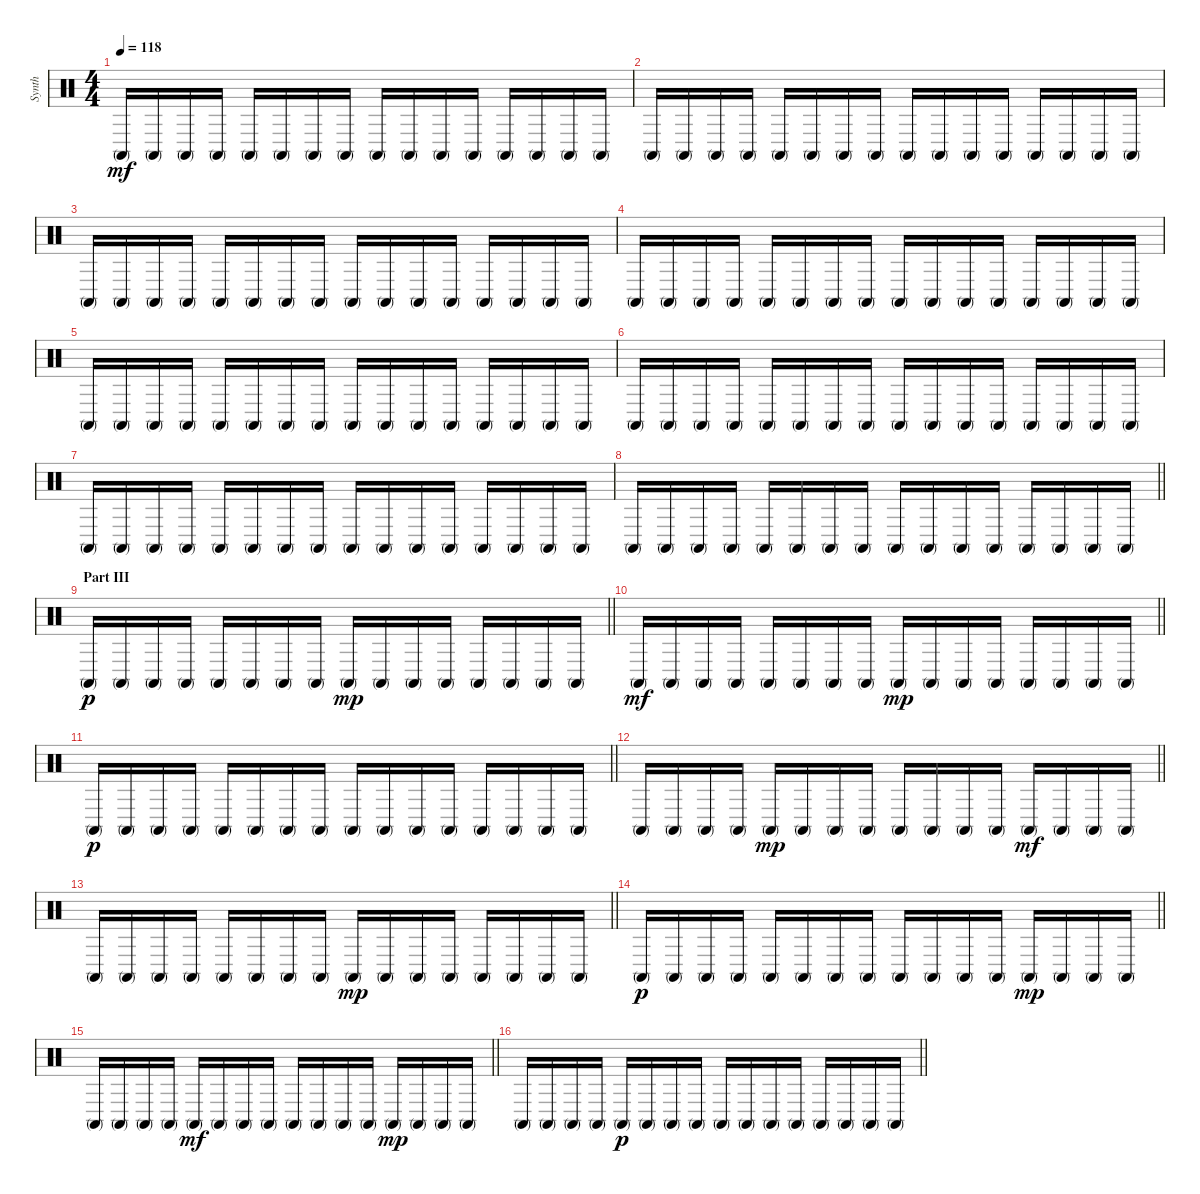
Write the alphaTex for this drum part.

\track ("Synth" "Synth") {instrument percussion}
\staff {score}
\articulation defaults
\ts (4 4)
\tempo 118
\clef neutral
\ks c "Conga high (mute)".16{dy mf} "Conga high (mute)".16 "Conga high (mute)".16 "Conga high (mute)".16 "Conga high (mute)".16 "Conga high (mute)".16 "Conga high (mute)".16 "Conga high (mute)".16 "Conga high (mute)".16 "Conga high (mute)".16 "Conga high (mute)".16 "Conga high (mute)".16 "Conga high (mute)".16 "Conga high (mute)".16 "Conga high (mute)".16 "Conga high (mute)".16
|
"Conga high (mute)".16 "Conga high (mute)".16 "Conga high (mute)".16 "Conga high (mute)".16 "Conga high (mute)".16 "Conga high (mute)".16 "Conga high (mute)".16 "Conga high (mute)".16 "Conga high (mute)".16 "Conga high (mute)".16 "Conga high (mute)".16 "Conga high (mute)".16 "Conga high (mute)".16 "Conga high (mute)".16 "Conga high (mute)".16 "Conga high (mute)".16 |
"Conga high (mute)".16 "Conga high (mute)".16 "Conga high (mute)".16 "Conga high (mute)".16 "Conga high (mute)".16 "Conga high (mute)".16 "Conga high (mute)".16 "Conga high (mute)".16 "Conga high (mute)".16 "Conga high (mute)".16 "Conga high (mute)".16 "Conga high (mute)".16 "Conga high (mute)".16 "Conga high (mute)".16 "Conga high (mute)".16 "Conga high (mute)".16 |
"Conga high (mute)".16 "Conga high (mute)".16 "Conga high (mute)".16 "Conga high (mute)".16 "Conga high (mute)".16 "Conga high (mute)".16 "Conga high (mute)".16 "Conga high (mute)".16 "Conga high (mute)".16 "Conga high (mute)".16 "Conga high (mute)".16 "Conga high (mute)".16 "Conga high (mute)".16 "Conga high (mute)".16 "Conga high (mute)".16 "Conga high (mute)".16 |
"Conga high (mute)".16 "Conga high (mute)".16 "Conga high (mute)".16 "Conga high (mute)".16 "Conga high (mute)".16 "Conga high (mute)".16 "Conga high (mute)".16 "Conga high (mute)".16 "Conga high (mute)".16 "Conga high (mute)".16 "Conga high (mute)".16 "Conga high (mute)".16 "Conga high (mute)".16 "Conga high (mute)".16 "Conga high (mute)".16 "Conga high (mute)".16 |
"Conga high (mute)".16 "Conga high (mute)".16 "Conga high (mute)".16 "Conga high (mute)".16 "Conga high (mute)".16 "Conga high (mute)".16 "Conga high (mute)".16 "Conga high (mute)".16 "Conga high (mute)".16 "Conga high (mute)".16 "Conga high (mute)".16 "Conga high (mute)".16 "Conga high (mute)".16 "Conga high (mute)".16 "Conga high (mute)".16 "Conga high (mute)".16 |
"Conga high (mute)".16 "Conga high (mute)".16 "Conga high (mute)".16 "Conga high (mute)".16 "Conga high (mute)".16 "Conga high (mute)".16 "Conga high (mute)".16 "Conga high (mute)".16 "Conga high (mute)".16 "Conga high (mute)".16 "Conga high (mute)".16 "Conga high (mute)".16 "Conga high (mute)".16 "Conga high (mute)".16 "Conga high (mute)".16 "Conga high (mute)".16 |
\barLineRight lightlight "Conga high (mute)".16 "Conga high (mute)".16 "Conga high (mute)".16 "Conga high (mute)".16 "Conga high (mute)".16 "Conga high (mute)".16 "Conga high (mute)".16 "Conga high (mute)".16 "Conga high (mute)".16 "Conga high (mute)".16 "Conga high (mute)".16 "Conga high (mute)".16 "Conga high (mute)".16 "Conga high (mute)".16 "Conga high (mute)".16 "Conga high (mute)".16
|
\section ("" "Part III")
\barLineRight lightlight "Conga high (mute)".16{dy p} "Conga high (mute)".16 "Conga high (mute)".16 "Conga high (mute)".16 "Conga high (mute)".16 "Conga high (mute)".16 "Conga high (mute)".16 "Conga high (mute)".16 "Conga high (mute)".16{dy mp} "Conga high (mute)".16 "Conga high (mute)".16 "Conga high (mute)".16 "Conga high (mute)".16 "Conga high (mute)".16 "Conga high (mute)".16 "Conga high (mute)".16
|
\barLineRight lightlight "Conga high (mute)".16{dy mf} "Conga high (mute)".16 "Conga high (mute)".16 "Conga high (mute)".16 "Conga high (mute)".16 "Conga high (mute)".16 "Conga high (mute)".16 "Conga high (mute)".16 "Conga high (mute)".16{dy mp} "Conga high (mute)".16 "Conga high (mute)".16 "Conga high (mute)".16 "Conga high (mute)".16 "Conga high (mute)".16 "Conga high (mute)".16 "Conga high (mute)".16
|
\barLineRight lightlight "Conga high (mute)".16{dy p} "Conga high (mute)".16 "Conga high (mute)".16 "Conga high (mute)".16 "Conga high (mute)".16 "Conga high (mute)".16 "Conga high (mute)".16 "Conga high (mute)".16 "Conga high (mute)".16 "Conga high (mute)".16 "Conga high (mute)".16 "Conga high (mute)".16 "Conga high (mute)".16 "Conga high (mute)".16 "Conga high (mute)".16 "Conga high (mute)".16
|
\barLineRight lightlight "Conga high (mute)".16 "Conga high (mute)".16 "Conga high (mute)".16 "Conga high (mute)".16 "Conga high (mute)".16{dy mp} "Conga high (mute)".16 "Conga high (mute)".16 "Conga high (mute)".16 "Conga high (mute)".16 "Conga high (mute)".16 "Conga high (mute)".16 "Conga high (mute)".16 "Conga high (mute)".16{dy mf} "Conga high (mute)".16 "Conga high (mute)".16 "Conga high (mute)".16
|
\barLineRight lightlight "Conga high (mute)".16 "Conga high (mute)".16 "Conga high (mute)".16 "Conga high (mute)".16 "Conga high (mute)".16 "Conga high (mute)".16 "Conga high (mute)".16 "Conga high (mute)".16 "Conga high (mute)".16{dy mp} "Conga high (mute)".16 "Conga high (mute)".16 "Conga high (mute)".16 "Conga high (mute)".16 "Conga high (mute)".16 "Conga high (mute)".16 "Conga high (mute)".16
|
\barLineRight lightlight "Conga high (mute)".16{dy p} "Conga high (mute)".16 "Conga high (mute)".16 "Conga high (mute)".16 "Conga high (mute)".16 "Conga high (mute)".16 "Conga high (mute)".16 "Conga high (mute)".16 "Conga high (mute)".16 "Conga high (mute)".16 "Conga high (mute)".16 "Conga high (mute)".16 "Conga high (mute)".16{dy mp} "Conga high (mute)".16 "Conga high (mute)".16 "Conga high (mute)".16
|
\barLineRight lightlight "Conga high (mute)".16 "Conga high (mute)".16 "Conga high (mute)".16 "Conga high (mute)".16 "Conga high (mute)".16{dy mf} "Conga high (mute)".16 "Conga high (mute)".16 "Conga high (mute)".16 "Conga high (mute)".16 "Conga high (mute)".16 "Conga high (mute)".16 "Conga high (mute)".16 "Conga high (mute)".16{dy mp} "Conga high (mute)".16 "Conga high (mute)".16 "Conga high (mute)".16
|
\barLineRight lightlight "Conga high (mute)".16 "Conga high (mute)".16 "Conga high (mute)".16 "Conga high (mute)".16 "Conga high (mute)".16{dy p} "Conga high (mute)".16 "Conga high (mute)".16 "Conga high (mute)".16 "Conga high (mute)".16 "Conga high (mute)".16 "Conga high (mute)".16 "Conga high (mute)".16 "Conga high (mute)".16 "Conga high (mute)".16 "Conga high (mute)".16 "Conga high (mute)".16
